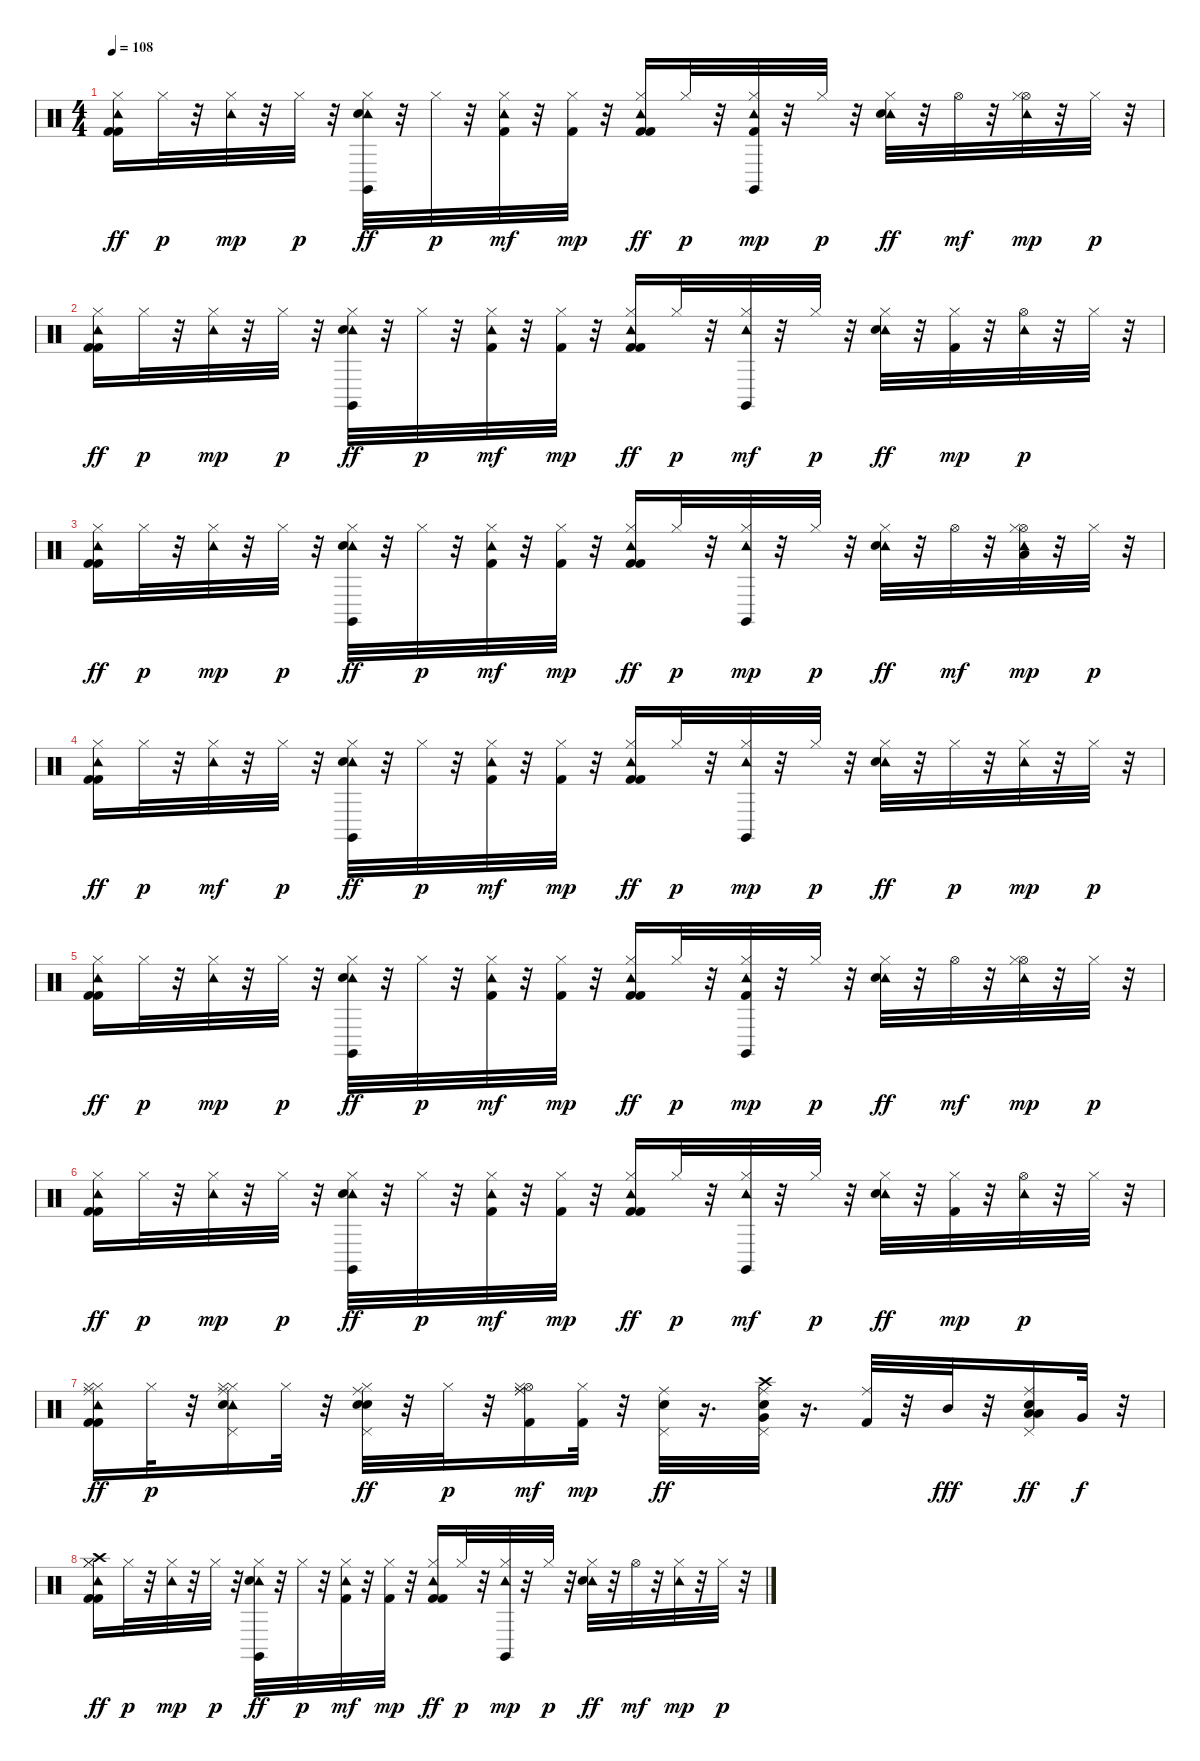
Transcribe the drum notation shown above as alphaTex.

\track "" {instrument percussion}
\staff {score}
\articulation defaults
\ts (4 4)
\tempo 108
\clef neutral
\ks c
("Kick (hit) 2" "Tambourine (hit)" "Hi-Hat (closed)" "Kick (hit) 2").16{dy ff} "Hi-Hat (closed)".32{dy p} r.32 ("Hi-Hat (closed)" "Tambourine (hit)").32{dy mp} r.32 "Hi-Hat (closed)".32{dy p} r.32 ("Tambourine (hit)" "Claves (hit)" "Hi-Hat (closed)" "Snare (hit) 2").32{dy ff} r.32 "Hi-Hat (closed)".32{dy p} r.32 ("Kick (hit) 2" "Tambourine (hit)" "Hi-Hat (closed)").32{dy mf} r.32 ("Hi-Hat (closed)" "Kick (hit) 2").32{dy mp} r.32 ("Tambourine (hit)" "Kick (hit) 2" "Hi-Hat (closed)" "Kick (hit) 2").16{dy ff} "Hi-Hat (closed)".32{dy p} r.32 ("Kick (hit) 2" "Tambourine (hit)" "Claves (hit)" "Hi-Hat (closed)").32{dy mp} r.32 "Hi-Hat (closed)".32{dy p} r.32 ("Tambourine (hit)" "Hi-Hat (closed)" "Snare (hit) 2").32{dy ff} r.32 "Hi-Hat (open)".32{dy mf} r.32 ("Tambourine (hit)" "Hi-Hat (open)" "Hi-Hat (closed)").32{dy mp} r.32 "Hi-Hat (closed)".32{dy p} r.32 |
("Kick (hit) 2" "Tambourine (hit)" "Hi-Hat (closed)" "Kick (hit) 2").16{dy ff} "Hi-Hat (closed)".32{dy p} r.32 ("Tambourine (hit)" "Hi-Hat (closed)").32{dy mp} r.32 "Hi-Hat (closed)".32{dy p} r.32 ("Tambourine (hit)" "Claves (hit)" "Hi-Hat (closed)" "Snare (hit) 2").32{dy ff} r.32 "Hi-Hat (closed)".32{dy p} r.32 ("Kick (hit) 2" "Tambourine (hit)" "Hi-Hat (closed)").32{dy mf} r.32 ("Hi-Hat (closed)" "Kick (hit) 2").32{dy mp} r.32 ("Kick (hit) 2" "Tambourine (hit)" "Hi-Hat (closed)" "Kick (hit) 2").16{dy ff} "Hi-Hat (closed)".32{dy p} r.32 ("Tambourine (hit)" "Claves (hit)" "Hi-Hat (closed)").32{dy mf} r.32 "Hi-Hat (closed)".32{dy p} r.32 ("Tambourine (hit)" "Hi-Hat (closed)" "Snare (hit) 2").32{dy ff} r.32 ("Hi-Hat (closed)" "Kick (hit) 2").32{dy mp} r.32 ("Tambourine (hit)" "Hi-Hat (open)").32{dy p} r.32 "Hi-Hat (closed)".32 r.32 |
("Tambourine (hit)" "Kick (hit) 2" "Hi-Hat (closed)" "Kick (hit) 2").16{dy ff} "Hi-Hat (closed)".32{dy p} r.32 ("Hi-Hat (closed)" "Tambourine (hit)").32{dy mp} r.32 "Hi-Hat (closed)".32{dy p} r.32 ("Tambourine (hit)" "Claves (hit)" "Hi-Hat (closed)" "Snare (hit) 2").32{dy ff} r.32 "Hi-Hat (closed)".32{dy p} r.32 ("Kick (hit) 2" "Tambourine (hit)" "Hi-Hat (closed)").32{dy mf} r.32 ("Hi-Hat (closed)" "Kick (hit) 2").32{dy mp} r.32 ("Kick (hit) 2" "Tambourine (hit)" "Hi-Hat (closed)" "Kick (hit) 2").16{dy ff} "Hi-Hat (closed)".32{dy p} r.32 ("Tambourine (hit)" "Claves (hit)" "Hi-Hat (closed)").32{dy mp} r.32 "Hi-Hat (closed)".32{dy p} r.32 ("Tambourine (hit)" "Hi-Hat (closed)" "Snare (hit) 2").32{dy ff} r.32 "Hi-Hat (open)".32{dy mf} r.32 ("Tambourine (hit)" "Hi-Hat (open)" "Low Tom (hit)" "Hi-Hat (closed)").32{dy mp} r.32 "Hi-Hat (closed)".32{dy p} r.32 |
("Kick (hit) 2" "Tambourine (hit)" "Hi-Hat (closed)" "Kick (hit) 2").16{dy ff} "Hi-Hat (closed)".32{dy p} r.32 ("Tambourine (hit)" "Hi-Hat (closed)").32{dy mf} r.32 "Hi-Hat (closed)".32{dy p} r.32 ("Tambourine (hit)" "Claves (hit)" "Hi-Hat (closed)" "Snare (hit) 2").32{dy ff} r.32 "Hi-Hat (closed)".32{dy p} r.32 ("Tambourine (hit)" "Kick (hit) 2" "Hi-Hat (closed)").32{dy mf} r.32 ("Hi-Hat (closed)" "Kick (hit) 2").32{dy mp} r.32 ("Tambourine (hit)" "Kick (hit) 2" "Hi-Hat (closed)" "Kick (hit) 2").16{dy ff} "Hi-Hat (closed)".32{dy p} r.32 ("Tambourine (hit)" "Claves (hit)" "Hi-Hat (closed)").32{dy mp} r.32 "Hi-Hat (closed)".32{dy p} r.32 ("Tambourine (hit)" "Hi-Hat (closed)" "Snare (hit) 2").32{dy ff} r.32 "Hi-Hat (closed)".32{dy p} r.32 ("Tambourine (hit)" "Hi-Hat (closed)").32{dy mp} r.32 "Hi-Hat (closed)".32{dy p} r.32 |
("Tambourine (hit)" "Kick (hit) 2" "Hi-Hat (closed)" "Kick (hit) 2").16{dy ff} "Hi-Hat (closed)".32{dy p} r.32 ("Hi-Hat (closed)" "Tambourine (hit)").32{dy mp} r.32 "Hi-Hat (closed)".32{dy p} r.32 ("Tambourine (hit)" "Claves (hit)" "Hi-Hat (closed)" "Snare (hit) 2").32{dy ff} r.32 "Hi-Hat (closed)".32{dy p} r.32 ("Kick (hit) 2" "Tambourine (hit)" "Hi-Hat (closed)").32{dy mf} r.32 ("Hi-Hat (closed)" "Kick (hit) 2").32{dy mp} r.32 ("Tambourine (hit)" "Kick (hit) 2" "Hi-Hat (closed)" "Kick (hit) 2").16{dy ff} "Hi-Hat (closed)".32{dy p} r.32 ("Tambourine (hit)" "Claves (hit)" "Kick (hit) 2" "Hi-Hat (closed)").32{dy mp} r.32 "Hi-Hat (closed)".32{dy p} r.32 ("Tambourine (hit)" "Hi-Hat (closed)" "Snare (hit) 2").32{dy ff} r.32 "Hi-Hat (open)".32{dy mf} r.32 ("Tambourine (hit)" "Hi-Hat (open)" "Hi-Hat (closed)").32{dy mp} r.32 "Hi-Hat (closed)".32{dy p} r.32 |
("Tambourine (hit)" "Kick (hit) 2" "Hi-Hat (closed)" "Kick (hit) 2").16{dy ff} "Hi-Hat (closed)".32{dy p} r.32 ("Tambourine (hit)" "Hi-Hat (closed)").32{dy mp} r.32 "Hi-Hat (closed)".32{dy p} r.32 ("Tambourine (hit)" "Claves (hit)" "Hi-Hat (closed)" "Snare (hit) 2").32{dy ff} r.32 "Hi-Hat (closed)".32{dy p} r.32 ("Kick (hit) 2" "Tambourine (hit)" "Hi-Hat (closed)").32{dy mf} r.32 ("Hi-Hat (closed)" "Kick (hit) 2").32{dy mp} r.32 ("Tambourine (hit)" "Kick (hit) 2" "Hi-Hat (closed)" "Kick (hit) 2").16{dy ff} "Hi-Hat (closed)".32{dy p} r.32 ("Tambourine (hit)" "Claves (hit)" "Hi-Hat (closed)").32{dy mf} r.32 "Hi-Hat (closed)".32{dy p} r.32 ("Tambourine (hit)" "Hi-Hat (closed)" "Snare (hit) 2").32{dy ff} r.32 ("Hi-Hat (closed)" "Kick (hit) 2").32{dy mp} r.32 ("Tambourine (hit)" "Hi-Hat (open)").32{dy p} r.32 "Hi-Hat (closed)".32 r.32 |
("Tambourine (hit)" "Kick (hit) 2" "Hi-Hat (closed)" "Ride (middle)" "Kick (hit) 2" "Hi-Hat (closed)").16{dy ff} "Hi-Hat (closed)".32{dy p} r.32 ("Hi-Hat (closed)" "Tambourine (hit)" "Hi-Hat (closed)" "Pedal Hi-Hat (hit)" "Ride (middle)" "Snare (hit) 2").16 "Hi-Hat (closed)".32 r.32 ("Electric Snare (hit)" "Pedal Hi-Hat (hit)" "Ride (middle)" "Hi-Hat (closed)" "Snare (hit) 2").32{dy ff} r.32 "Hi-Hat (closed)".32{dy p} r.32 ("Ride (middle)" "Hi-Hat (open)" "Ride (middle)" "Kick (hit) 2" "Hi-Hat (closed)").16{dy mf} ("Hi-Hat (closed)" "Kick (hit) 2").32{dy mp} r.32 ("Pedal Hi-Hat (hit)" "Ride (middle)" "Snare (hit) 2").32{dy ff} r.16{d} ("Very Low Tom (hit)" "Crash high (hit)" "Pedal Hi-Hat (hit)" "Ride (middle)" "Snare (hit) 2").32 r.16{d} ("Ride (middle)" "Kick (hit) 2").32 r.32 "Mid Tom (hit)".32{dy fff} r.32 ("Low Tom (hit)" "Pedal Hi-Hat (hit)" "Low Tom (hit)" "Ride (middle)" "Snare (hit) 2").16{dy ff} "Very Low Tom (hit)".32{dy f} r.32 |
("Crash high (hit)" "Kick (hit) 2" "Hi-Hat (closed)" "Tambourine (hit)" "Hi-Hat (closed)" "Kick (hit) 2").16{dy ff} "Hi-Hat (closed)".32{dy p} r.32 ("Hi-Hat (closed)" "Tambourine (hit)").32{dy mp} r.32 "Hi-Hat (closed)".32{dy p} r.32 ("Tambourine (hit)" "Claves (hit)" "Hi-Hat (closed)" "Snare (hit) 2").32{dy ff} r.32 "Hi-Hat (closed)".32{dy p} r.32 ("Tambourine (hit)" "Kick (hit) 2" "Hi-Hat (closed)").32{dy mf} r.32 ("Hi-Hat (closed)" "Kick (hit) 2").32{dy mp} r.32 ("Kick (hit) 2" "Tambourine (hit)" "Hi-Hat (closed)" "Kick (hit) 2").16{dy ff} "Hi-Hat (closed)".32{dy p} r.32 ("Tambourine (hit)" "Claves (hit)" "Hi-Hat (closed)").32{dy mp} r.32 "Hi-Hat (closed)".32{dy p} r.32 ("Tambourine (hit)" "Hi-Hat (closed)" "Snare (hit) 2").32{dy ff} r.32 "Hi-Hat (open)".32{dy mf} r.32 ("Tambourine (hit)" "Hi-Hat (closed)").32{dy mp} r.32 "Hi-Hat (closed)".32{dy p} r.32
